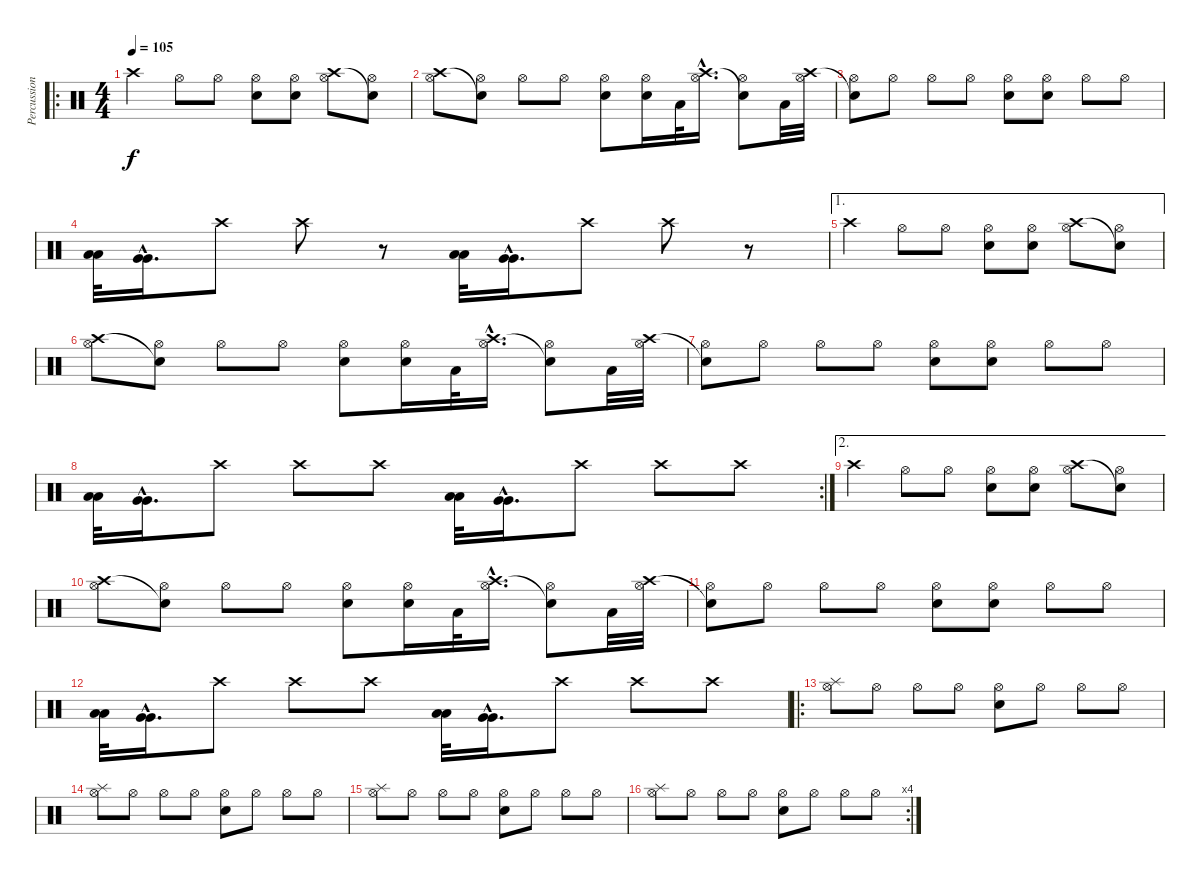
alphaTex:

\track ("Percussions" "Percussion") {instrument percussion}
\staff {score}
\articulation defaults
\ro
\ts (4 4)
\tempo 105
\clef neutral
\ks c "Crash high (hit)".4{dy f} "Hi-Hat (open)".8 "Hi-Hat (open)".8
("Hi-Hat (open)" "Electric Snare (hit)").8 ("Hi-Hat (open)" "Electric Snare (hit)").8 ("Hi-Hat (open)" "Crash high (hit)").8 ("Hi-Hat (open)" "Snare (hit)"{t}).8 |
("Hi-Hat (open)" "Crash high (hit)").8 ("Hi-Hat (open)" "Snare (hit)"{t}).8 "Hi-Hat (open)".8 "Hi-Hat (open)".8 ("Hi-Hat (open)" "Electric Snare (hit)").8 ("Hi-Hat (open)" "Electric Snare (hit)").16 "Low Tom (hit)".32 ("Hi-Hat (open)"{hac} "Crash high (hit)"{hac}).16{d} ("Hi-Hat (open)" "Snare (hit)"{t}).8 "Low Tom (hit)".32 ("Hi-Hat (open)" "Crash high (hit)").32 |
("Hi-Hat (open)" "Snare (hit)"{t}).8 "Hi-Hat (open)".8 "Hi-Hat (open)".8 "Hi-Hat (open)".8 ("Hi-Hat (open)" "Electric Snare (hit)").8 ("Hi-Hat (open)" "Electric Snare (hit)").8 "Hi-Hat (open)".8 "Hi-Hat (open)".8 |
("Low Tom (hit)" "Low Tom (hit)").32 ("Very Low Tom (hit)"{hac} "Very Low Tom (hit)"{hac}).16{d} "Crash high (hit)".8 "Crash high (hit)".8 r.8 ("Low Tom (hit)" "Low Tom (hit)").32 ("Very Low Tom (hit)"{hac} "Very Low Tom (hit)"{hac}).16{d} "Crash high (hit)".8 "Crash high (hit)".8 r.8 |
\ae 1 "Crash high (hit)".4 "Hi-Hat (open)".8 "Hi-Hat (open)".8
("Hi-Hat (open)" "Electric Snare (hit)").8 ("Hi-Hat (open)" "Electric Snare (hit)").8 ("Hi-Hat (open)" "Crash high (hit)").8 ("Hi-Hat (open)" "Snare (hit)"{t}).8 |
("Hi-Hat (open)" "Crash high (hit)").8 ("Hi-Hat (open)" "Snare (hit)"{t}).8 "Hi-Hat (open)".8 "Hi-Hat (open)".8 ("Hi-Hat (open)" "Electric Snare (hit)").8 ("Hi-Hat (open)" "Electric Snare (hit)").16 "Low Tom (hit)".32 ("Hi-Hat (open)"{hac} "Crash high (hit)"{hac}).16{d} ("Hi-Hat (open)" "Snare (hit)"{t}).8 "Low Tom (hit)".32 ("Hi-Hat (open)" "Crash high (hit)").32 |
("Hi-Hat (open)" "Snare (hit)"{t}).8 "Hi-Hat (open)".8 "Hi-Hat (open)".8 "Hi-Hat (open)".8 ("Hi-Hat (open)" "Electric Snare (hit)").8 ("Hi-Hat (open)" "Electric Snare (hit)").8 "Hi-Hat (open)".8 "Hi-Hat (open)".8 |
\rc 2
("Low Tom (hit)" "Low Tom (hit)").32 ("Very Low Tom (hit)"{hac} "Very Low Tom (hit)"{hac}).16{d} "Crash high (hit)".8 "Crash high (hit)".8 "Crash high (hit)".8 ("Low Tom (hit)" "Low Tom (hit)").32 ("Very Low Tom (hit)"{hac} "Very Low Tom (hit)"{hac}).16{d} "Crash high (hit)".8 "Crash high (hit)".8 "Crash high (hit)".8 |
\ae 2 "Crash high (hit)".4 "Hi-Hat (open)".8 "Hi-Hat (open)".8
("Hi-Hat (open)" "Electric Snare (hit)").8 ("Hi-Hat (open)" "Electric Snare (hit)").8 ("Hi-Hat (open)" "Crash high (hit)").8 ("Hi-Hat (open)" "Snare (hit)"{t}).8 |
("Hi-Hat (open)" "Crash high (hit)").8 ("Hi-Hat (open)" "Snare (hit)"{t}).8 "Hi-Hat (open)".8 "Hi-Hat (open)".8 ("Hi-Hat (open)" "Electric Snare (hit)").8 ("Hi-Hat (open)" "Electric Snare (hit)").16 "Low Tom (hit)".32 ("Hi-Hat (open)"{hac} "Crash high (hit)"{hac}).16{d} ("Hi-Hat (open)" "Snare (hit)"{t}).8 "Low Tom (hit)".32 ("Hi-Hat (open)" "Crash high (hit)").32 |
("Hi-Hat (open)" "Snare (hit)"{t}).8 "Hi-Hat (open)".8 "Hi-Hat (open)".8 "Hi-Hat (open)".8 ("Hi-Hat (open)" "Electric Snare (hit)").8 ("Hi-Hat (open)" "Electric Snare (hit)").8 "Hi-Hat (open)".8 "Hi-Hat (open)".8 |
("Low Tom (hit)" "Low Tom (hit)").32 ("Very Low Tom (hit)"{hac} "Very Low Tom (hit)"{hac}).16{d} "Crash high (hit)".8 "Crash high (hit)".8 "Crash high (hit)".8 ("Low Tom (hit)" "Low Tom (hit)").32 ("Very Low Tom (hit)"{hac} "Very Low Tom (hit)"{hac}).16{d} "Crash high (hit)".8 "Crash high (hit)".8 "Crash high (hit)".8 |
\ro
("Splash (hit)" "Hi-Hat (open)").8 "Hi-Hat (open)".8 "Hi-Hat (open)".8 "Hi-Hat (open)".8 ("Electric Snare (hit)" "Hi-Hat (open)").8 "Hi-Hat (open)".8 "Hi-Hat (open)".8 "Hi-Hat (open)".8 |
("Splash (hit)" "Hi-Hat (open)").8 "Hi-Hat (open)".8 "Hi-Hat (open)".8 "Hi-Hat (open)".8 ("Electric Snare (hit)" "Hi-Hat (open)").8 "Hi-Hat (open)".8 "Hi-Hat (open)".8 "Hi-Hat (open)".8 |
("Splash (hit)" "Hi-Hat (open)").8 "Hi-Hat (open)".8 "Hi-Hat (open)".8 "Hi-Hat (open)".8 ("Electric Snare (hit)" "Hi-Hat (open)").8 "Hi-Hat (open)".8 "Hi-Hat (open)".8 "Hi-Hat (open)".8 |
\rc 4
("Splash (hit)" "Hi-Hat (open)").8 "Hi-Hat (open)".8 "Hi-Hat (open)".8 "Hi-Hat (open)".8 ("Electric Snare (hit)" "Hi-Hat (open)").8 "Hi-Hat (open)".8 "Hi-Hat (open)".8 "Hi-Hat (open)".8
